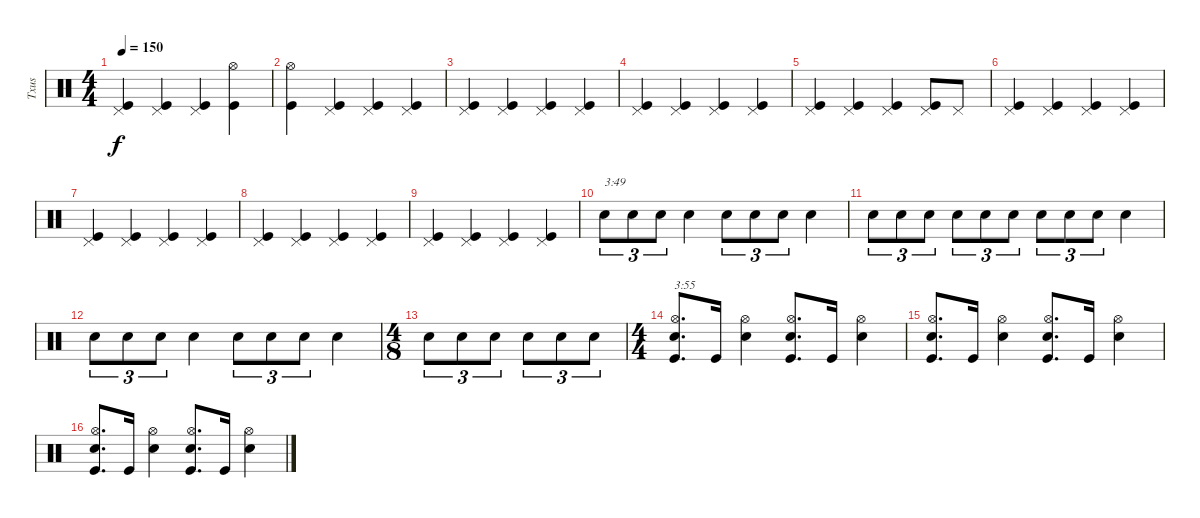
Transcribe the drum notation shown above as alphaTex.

\track ("Txus" "Txus") {instrument percussion}
\staff {score}
\articulation defaults
\ts (4 4)
\tempo 150
\clef neutral
\ks c
("Kick (hit)" "Pedal Hi-Hat (hit)").4{dy f} ("Kick (hit)" "Pedal Hi-Hat (hit)").4 ("Kick (hit)" "Pedal Hi-Hat (hit)").4 ("Kick (hit)" "Hi-Hat (open)").4 |
("Kick (hit)" "Hi-Hat (open)").4 ("Kick (hit)" "Pedal Hi-Hat (hit)").4 ("Kick (hit)" "Pedal Hi-Hat (hit)").4 ("Kick (hit)" "Pedal Hi-Hat (hit)").4 |
("Kick (hit)" "Pedal Hi-Hat (hit)").4 ("Kick (hit)" "Pedal Hi-Hat (hit)").4 ("Kick (hit)" "Pedal Hi-Hat (hit)").4 ("Kick (hit)" "Pedal Hi-Hat (hit)").4 |
("Kick (hit)" "Pedal Hi-Hat (hit)").4 ("Kick (hit)" "Pedal Hi-Hat (hit)").4 ("Kick (hit)" "Pedal Hi-Hat (hit)").4 ("Kick (hit)" "Pedal Hi-Hat (hit)").4 |
("Kick (hit)" "Pedal Hi-Hat (hit)").4 ("Kick (hit)" "Pedal Hi-Hat (hit)").4 ("Kick (hit)" "Pedal Hi-Hat (hit)").4 ("Kick (hit)" "Pedal Hi-Hat (hit)").8 "Pedal Hi-Hat (hit)".8 |
("Kick (hit)" "Pedal Hi-Hat (hit)").4 ("Kick (hit)" "Pedal Hi-Hat (hit)").4 ("Kick (hit)" "Pedal Hi-Hat (hit)").4 ("Kick (hit)" "Pedal Hi-Hat (hit)").4 |
("Kick (hit)" "Pedal Hi-Hat (hit)").4 ("Kick (hit)" "Pedal Hi-Hat (hit)").4 ("Kick (hit)" "Pedal Hi-Hat (hit)").4 ("Kick (hit)" "Pedal Hi-Hat (hit)").4 |
("Kick (hit)" "Pedal Hi-Hat (hit)").4 ("Kick (hit)" "Pedal Hi-Hat (hit)").4 ("Kick (hit)" "Pedal Hi-Hat (hit)").4 ("Kick (hit)" "Pedal Hi-Hat (hit)").4 |
("Kick (hit)" "Pedal Hi-Hat (hit)").4 ("Kick (hit)" "Pedal Hi-Hat (hit)").4 ("Kick (hit)" "Pedal Hi-Hat (hit)").4 ("Kick (hit)" "Pedal Hi-Hat (hit)").4 |
"Snare (hit) 2".8{tu (3 2) txt "3:49"} "Snare (hit) 2".8{tu (3 2)} "Snare (hit) 2".8{tu (3 2)} "Snare (hit) 2".4 "Snare (hit) 2".8{tu (3 2)} "Snare (hit) 2".8{tu (3 2)} "Snare (hit) 2".8{tu (3 2)} "Snare (hit) 2".4 |
"Snare (hit) 2".8{tu (3 2)} "Snare (hit) 2".8{tu (3 2)} "Snare (hit) 2".8{tu (3 2)} "Snare (hit) 2".8{tu (3 2)} "Snare (hit) 2".8{tu (3 2)} "Snare (hit) 2".8{tu (3 2)} "Snare (hit) 2".8{tu (3 2)} "Snare (hit) 2".8{tu (3 2)} "Snare (hit) 2".8{tu (3 2)} "Snare (hit) 2".4 |
"Snare (hit) 2".8{tu (3 2)} "Snare (hit) 2".8{tu (3 2)} "Snare (hit) 2".8{tu (3 2)} "Snare (hit) 2".4 "Snare (hit) 2".8{tu (3 2)} "Snare (hit) 2".8{tu (3 2)} "Snare (hit) 2".8{tu (3 2)} "Snare (hit) 2".4 |
\ts (4 8)
"Snare (hit) 2".8{tu (3 2)} "Snare (hit) 2".8{tu (3 2)} "Snare (hit) 2".8{tu (3 2)} "Snare (hit) 2".8{tu (3 2)} "Snare (hit) 2".8{tu (3 2)} "Snare (hit) 2".8{tu (3 2)} |
\ts (4 4)
("Kick (hit)" "Snare (hit) 2" "Hi-Hat (open)").8{d txt "3:55"} "Kick (hit)".16 ("Snare (hit) 2" "Hi-Hat (open)").4 ("Kick (hit)" "Snare (hit) 2" "Hi-Hat (open)").8{d} "Kick (hit)".16 ("Snare (hit) 2" "Hi-Hat (open)").4 |
("Kick (hit)" "Snare (hit) 2" "Hi-Hat (open)").8{d} "Kick (hit)".16 ("Snare (hit) 2" "Hi-Hat (open)").4 ("Kick (hit)" "Snare (hit) 2" "Hi-Hat (open)").8{d} "Kick (hit)".16 ("Snare (hit) 2" "Hi-Hat (open)").4 |
("Kick (hit)" "Snare (hit) 2" "Hi-Hat (open)").8{d} "Kick (hit)".16 ("Snare (hit) 2" "Hi-Hat (open)").4 ("Kick (hit)" "Snare (hit) 2" "Hi-Hat (open)").8{d} "Kick (hit)".16 ("Snare (hit) 2" "Hi-Hat (open)").4
